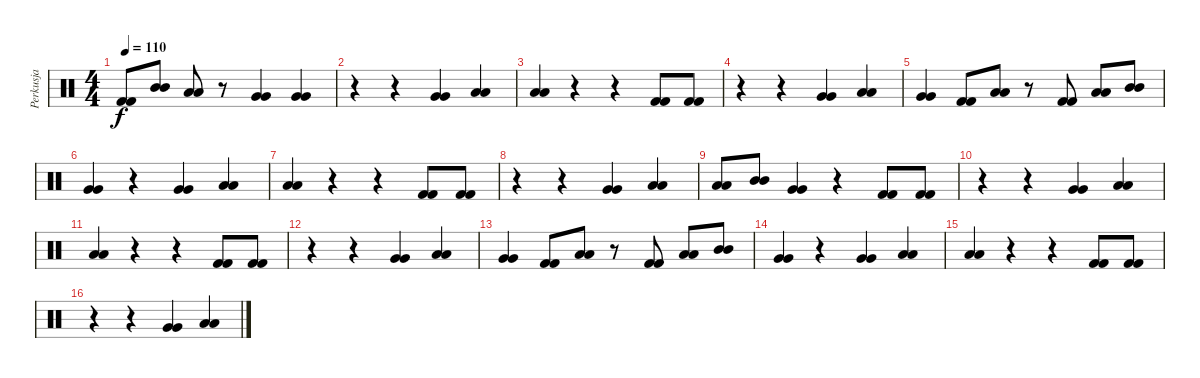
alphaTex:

\track ("Perkusja" "Perkusja") {instrument percussion}
\staff {score}
\articulation defaults
\ts (4 4)
\tempo 110
\clef neutral
\ks c
("Kick (hit) 2" "Kick (hit) 2").8{dy f} ("Mid Tom (hit)" "Mid Tom (hit)").8 ("Low Tom (hit)" "Low Tom (hit)").8 r.8 ("Very Low Tom (hit)" "Very Low Tom (hit)").4 ("Very Low Tom (hit)" "Very Low Tom (hit)").4 |
r.4 r.4 ("Very Low Tom (hit)" "Very Low Tom (hit)").4 ("Low Floor Tom (hit)" "Low Floor Tom (hit)").4 |
("Low Tom (hit)" "Low Tom (hit)").4 r.4 r.4 ("Kick (hit) 2" "Kick (hit) 2").8 ("Kick (hit) 2" "Kick (hit) 2").8 |
r.4 r.4 ("Very Low Tom (hit)" "Very Low Tom (hit)").4 ("Low Floor Tom (hit)" "Low Floor Tom (hit)").4 |
("Very Low Tom (hit)" "Very Low Tom (hit)").4 ("Kick (hit) 2" "Kick (hit) 2").8 ("Low Tom (hit)" "Low Tom (hit)").8 r.8 ("Kick (hit) 2" "Kick (hit) 2").8 ("Low Tom (hit)" "Low Tom (hit)").8 ("Mid Tom (hit)" "Mid Tom (hit)").8 |
("Very Low Tom (hit)" "Very Low Tom (hit)").4 r.4 ("Very Low Tom (hit)" "Very Low Tom (hit)").4 ("Low Floor Tom (hit)" "Low Floor Tom (hit)").4 |
("Low Tom (hit)" "Low Tom (hit)").4 r.4 r.4 ("Kick (hit) 2" "Kick (hit) 2").8 ("Kick (hit) 2" "Kick (hit) 2").8 |
r.4 r.4 ("Very Low Tom (hit)" "Very Low Tom (hit)").4 ("Low Floor Tom (hit)" "Low Floor Tom (hit)").4 |
("Low Tom (hit)" "Low Tom (hit)").8 ("Mid Tom (hit)" "Mid Tom (hit)").8 ("Very Low Tom (hit)" "Very Low Tom (hit)").4 r.4 ("Kick (hit) 2" "Kick (hit) 2").8 ("Kick (hit) 2" "Kick (hit) 2").8 |
r.4 r.4 ("Very Low Tom (hit)" "Very Low Tom (hit)").4 ("Low Floor Tom (hit)" "Low Floor Tom (hit)").4 |
("Low Tom (hit)" "Low Tom (hit)").4 r.4 r.4 ("Kick (hit) 2" "Kick (hit) 2").8 ("Kick (hit) 2" "Kick (hit) 2").8 |
r.4 r.4 ("Very Low Tom (hit)" "Very Low Tom (hit)").4 ("Low Floor Tom (hit)" "Low Floor Tom (hit)").4 |
("Very Low Tom (hit)" "Very Low Tom (hit)").4 ("Kick (hit) 2" "Kick (hit) 2").8 ("Low Tom (hit)" "Low Tom (hit)").8 r.8 ("Kick (hit) 2" "Kick (hit) 2").8 ("Low Tom (hit)" "Low Tom (hit)").8 ("Mid Tom (hit)" "Mid Tom (hit)").8 |
("Very Low Tom (hit)" "Very Low Tom (hit)").4 r.4 ("Very Low Tom (hit)" "Very Low Tom (hit)").4 ("Low Floor Tom (hit)" "Low Floor Tom (hit)").4 |
("Low Tom (hit)" "Low Tom (hit)").4 r.4 r.4 ("Kick (hit) 2" "Kick (hit) 2").8 ("Kick (hit) 2" "Kick (hit) 2").8 |
r.4 r.4 ("Very Low Tom (hit)" "Very Low Tom (hit)").4 ("Low Floor Tom (hit)" "Low Floor Tom (hit)").4
